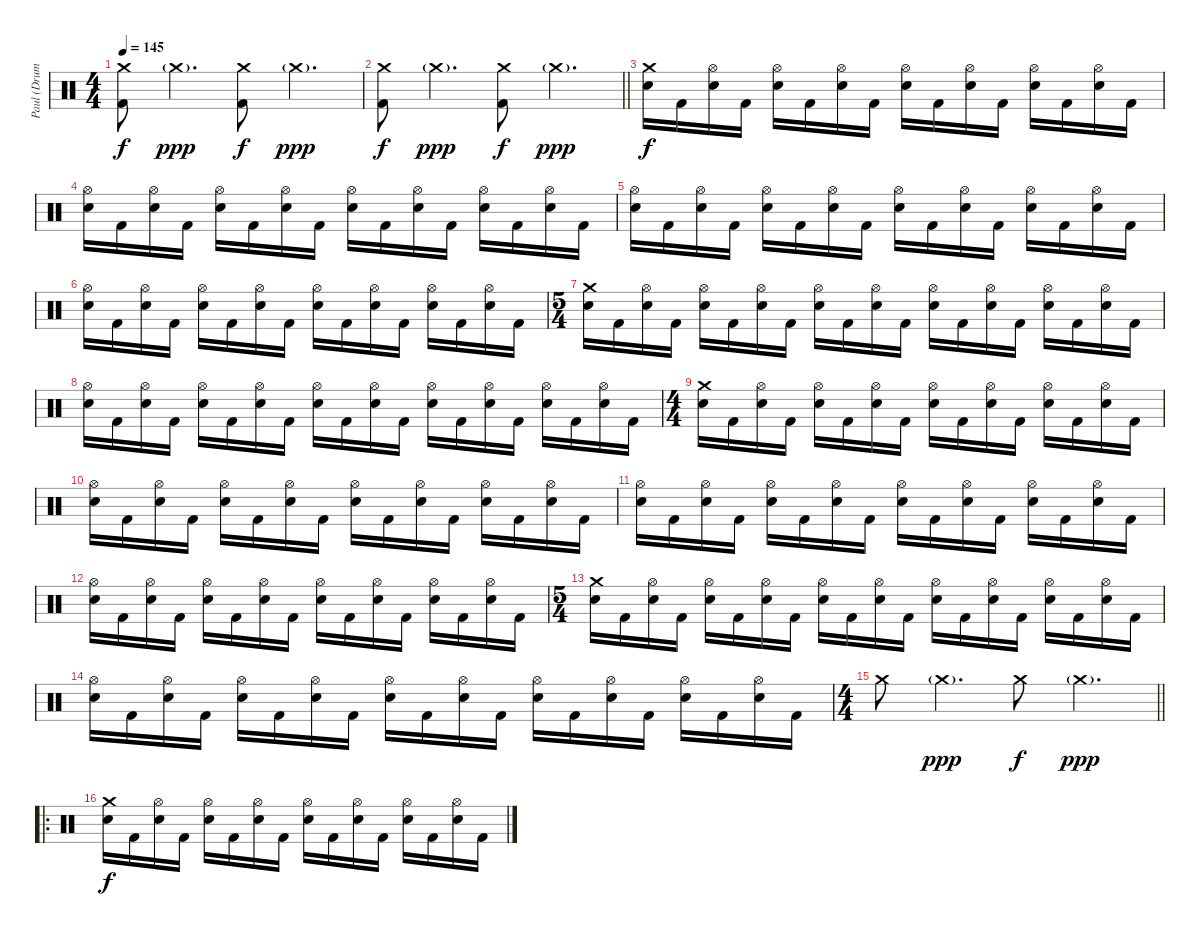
\track ("Paul (Drums)" "Paul (Drum") {instrument percussion}
\staff {score}
\articulation defaults
\ts (4 4)
\tempo 145
\clef neutral
\ks c
("Crash medium (hit)" "Kick (hit) 2").8{dy f} "Crash medium (hit)"{g}.4{d dy ppp} ("Crash medium (hit)" "Kick (hit) 2").8{dy f} "Crash medium (hit)"{g}.4{d dy ppp} |
\barLineRight lightlight
("Crash medium (hit)" "Kick (hit) 2").8{dy f} "Crash medium (hit)"{g}.4{d dy ppp} ("Crash medium (hit)" "Kick (hit) 2").8{dy f} "Crash medium (hit)"{g}.4{d dy ppp} |
\section ("" " ")
("Crash medium (hit)" "Electric Snare (hit)").16{dy f} "Kick (hit) 2".16 ("Hi-Hat (open)" "Electric Snare (hit)").16 "Kick (hit) 2".16 ("Hi-Hat (open)" "Electric Snare (hit)").16 "Kick (hit) 2".16 ("Hi-Hat (open)" "Electric Snare (hit)").16 "Kick (hit) 2".16 ("Hi-Hat (open)" "Electric Snare (hit)").16 "Kick (hit) 2".16 ("Hi-Hat (open)" "Electric Snare (hit)").16 "Kick (hit) 2".16 ("Hi-Hat (open)" "Electric Snare (hit)").16 "Kick (hit) 2".16 ("Hi-Hat (open)" "Electric Snare (hit)").16 "Kick (hit) 2".16 |
("Hi-Hat (open)" "Electric Snare (hit)").16 "Kick (hit) 2".16 ("Hi-Hat (open)" "Electric Snare (hit)").16 "Kick (hit) 2".16 ("Hi-Hat (open)" "Electric Snare (hit)").16 "Kick (hit) 2".16 ("Hi-Hat (open)" "Electric Snare (hit)").16 "Kick (hit) 2".16 ("Hi-Hat (open)" "Electric Snare (hit)").16 "Kick (hit) 2".16 ("Hi-Hat (open)" "Electric Snare (hit)").16 "Kick (hit) 2".16 ("Hi-Hat (open)" "Electric Snare (hit)").16 "Kick (hit) 2".16 ("Hi-Hat (open)" "Electric Snare (hit)").16 "Kick (hit) 2".16 |
("Hi-Hat (open)" "Electric Snare (hit)").16 "Kick (hit) 2".16 ("Hi-Hat (open)" "Electric Snare (hit)").16 "Kick (hit) 2".16 ("Hi-Hat (open)" "Electric Snare (hit)").16 "Kick (hit) 2".16 ("Hi-Hat (open)" "Electric Snare (hit)").16 "Kick (hit) 2".16 ("Hi-Hat (open)" "Electric Snare (hit)").16 "Kick (hit) 2".16 ("Hi-Hat (open)" "Electric Snare (hit)").16 "Kick (hit) 2".16 ("Hi-Hat (open)" "Electric Snare (hit)").16 "Kick (hit) 2".16 ("Hi-Hat (open)" "Electric Snare (hit)").16 "Kick (hit) 2".16 |
("Hi-Hat (open)" "Electric Snare (hit)").16 "Kick (hit) 2".16 ("Hi-Hat (open)" "Electric Snare (hit)").16 "Kick (hit) 2".16 ("Hi-Hat (open)" "Electric Snare (hit)").16 "Kick (hit) 2".16 ("Hi-Hat (open)" "Electric Snare (hit)").16 "Kick (hit) 2".16 ("Hi-Hat (open)" "Electric Snare (hit)").16 "Kick (hit) 2".16 ("Hi-Hat (open)" "Electric Snare (hit)").16 "Kick (hit) 2".16 ("Hi-Hat (open)" "Electric Snare (hit)").16 "Kick (hit) 2".16 ("Hi-Hat (open)" "Electric Snare (hit)").16 "Kick (hit) 2".16 |
\ts (5 4)
("Crash medium (hit)" "Electric Snare (hit)").16 "Kick (hit) 2".16 ("Hi-Hat (open)" "Electric Snare (hit)").16 "Kick (hit) 2".16 ("Hi-Hat (open)" "Electric Snare (hit)").16 "Kick (hit) 2".16 ("Hi-Hat (open)" "Electric Snare (hit)").16 "Kick (hit) 2".16 ("Hi-Hat (open)" "Electric Snare (hit)").16 "Kick (hit) 2".16 ("Hi-Hat (open)" "Electric Snare (hit)").16 "Kick (hit) 2".16 ("Hi-Hat (open)" "Electric Snare (hit)").16 "Kick (hit) 2".16 ("Hi-Hat (open)" "Electric Snare (hit)").16 "Kick (hit) 2".16 ("Hi-Hat (open)" "Electric Snare (hit)").16 "Kick (hit) 2".16 ("Hi-Hat (open)" "Electric Snare (hit)").16 "Kick (hit) 2".16 |
("Hi-Hat (open)" "Electric Snare (hit)").16 "Kick (hit) 2".16 ("Hi-Hat (open)" "Electric Snare (hit)").16 "Kick (hit) 2".16 ("Hi-Hat (open)" "Electric Snare (hit)").16 "Kick (hit) 2".16 ("Hi-Hat (open)" "Electric Snare (hit)").16 "Kick (hit) 2".16 ("Hi-Hat (open)" "Electric Snare (hit)").16 "Kick (hit) 2".16 ("Hi-Hat (open)" "Electric Snare (hit)").16 "Kick (hit) 2".16 ("Hi-Hat (open)" "Electric Snare (hit)").16 "Kick (hit) 2".16 ("Hi-Hat (open)" "Electric Snare (hit)").16 "Kick (hit) 2".16 ("Hi-Hat (open)" "Electric Snare (hit)").16 "Kick (hit) 2".16 ("Hi-Hat (open)" "Electric Snare (hit)").16 "Kick (hit) 2".16 |
\ts (4 4)
("Crash medium (hit)" "Electric Snare (hit)").16 "Kick (hit) 2".16 ("Hi-Hat (open)" "Electric Snare (hit)").16 "Kick (hit) 2".16 ("Hi-Hat (open)" "Electric Snare (hit)").16 "Kick (hit) 2".16 ("Hi-Hat (open)" "Electric Snare (hit)").16 "Kick (hit) 2".16 ("Hi-Hat (open)" "Electric Snare (hit)").16 "Kick (hit) 2".16 ("Hi-Hat (open)" "Electric Snare (hit)").16 "Kick (hit) 2".16 ("Hi-Hat (open)" "Electric Snare (hit)").16 "Kick (hit) 2".16 ("Hi-Hat (open)" "Electric Snare (hit)").16 "Kick (hit) 2".16 |
("Hi-Hat (open)" "Electric Snare (hit)").16 "Kick (hit) 2".16 ("Hi-Hat (open)" "Electric Snare (hit)").16 "Kick (hit) 2".16 ("Hi-Hat (open)" "Electric Snare (hit)").16 "Kick (hit) 2".16 ("Hi-Hat (open)" "Electric Snare (hit)").16 "Kick (hit) 2".16 ("Hi-Hat (open)" "Electric Snare (hit)").16 "Kick (hit) 2".16 ("Hi-Hat (open)" "Electric Snare (hit)").16 "Kick (hit) 2".16 ("Hi-Hat (open)" "Electric Snare (hit)").16 "Kick (hit) 2".16 ("Hi-Hat (open)" "Electric Snare (hit)").16 "Kick (hit) 2".16 |
("Hi-Hat (open)" "Electric Snare (hit)").16 "Kick (hit) 2".16 ("Hi-Hat (open)" "Electric Snare (hit)").16 "Kick (hit) 2".16 ("Hi-Hat (open)" "Electric Snare (hit)").16 "Kick (hit) 2".16 ("Hi-Hat (open)" "Electric Snare (hit)").16 "Kick (hit) 2".16 ("Hi-Hat (open)" "Electric Snare (hit)").16 "Kick (hit) 2".16 ("Hi-Hat (open)" "Electric Snare (hit)").16 "Kick (hit) 2".16 ("Hi-Hat (open)" "Electric Snare (hit)").16 "Kick (hit) 2".16 ("Hi-Hat (open)" "Electric Snare (hit)").16 "Kick (hit) 2".16 |
("Hi-Hat (open)" "Electric Snare (hit)").16 "Kick (hit) 2".16 ("Hi-Hat (open)" "Electric Snare (hit)").16 "Kick (hit) 2".16 ("Hi-Hat (open)" "Electric Snare (hit)").16 "Kick (hit) 2".16 ("Hi-Hat (open)" "Electric Snare (hit)").16 "Kick (hit) 2".16 ("Hi-Hat (open)" "Electric Snare (hit)").16 "Kick (hit) 2".16 ("Hi-Hat (open)" "Electric Snare (hit)").16 "Kick (hit) 2".16 ("Hi-Hat (open)" "Electric Snare (hit)").16 "Kick (hit) 2".16 ("Hi-Hat (open)" "Electric Snare (hit)").16 "Kick (hit) 2".16 |
\ts (5 4)
("Crash medium (hit)" "Electric Snare (hit)").16 "Kick (hit) 2".16 ("Hi-Hat (open)" "Electric Snare (hit)").16 "Kick (hit) 2".16 ("Hi-Hat (open)" "Electric Snare (hit)").16 "Kick (hit) 2".16 ("Hi-Hat (open)" "Electric Snare (hit)").16 "Kick (hit) 2".16 ("Hi-Hat (open)" "Electric Snare (hit)").16 "Kick (hit) 2".16 ("Hi-Hat (open)" "Electric Snare (hit)").16 "Kick (hit) 2".16 ("Hi-Hat (open)" "Electric Snare (hit)").16 "Kick (hit) 2".16 ("Hi-Hat (open)" "Electric Snare (hit)").16 "Kick (hit) 2".16 ("Hi-Hat (open)" "Electric Snare (hit)").16 "Kick (hit) 2".16 ("Hi-Hat (open)" "Electric Snare (hit)").16 "Kick (hit) 2".16 |
("Hi-Hat (open)" "Electric Snare (hit)").16 "Kick (hit) 2".16 ("Hi-Hat (open)" "Electric Snare (hit)").16 "Kick (hit) 2".16 ("Hi-Hat (open)" "Electric Snare (hit)").16 "Kick (hit) 2".16 ("Hi-Hat (open)" "Electric Snare (hit)").16 "Kick (hit) 2".16 ("Hi-Hat (open)" "Electric Snare (hit)").16 "Kick (hit) 2".16 ("Hi-Hat (open)" "Electric Snare (hit)").16 "Kick (hit) 2".16 ("Hi-Hat (open)" "Electric Snare (hit)").16 "Kick (hit) 2".16 ("Hi-Hat (open)" "Electric Snare (hit)").16 "Kick (hit) 2".16 ("Hi-Hat (open)" "Electric Snare (hit)").16 "Kick (hit) 2".16 ("Hi-Hat (open)" "Electric Snare (hit)").16 "Kick (hit) 2".16 |
\ts (4 4)
\barLineRight lightlight "Crash medium (hit)".8 "Crash medium (hit)"{g}.4{d dy ppp} "Crash medium (hit)".8{dy f} "Crash medium (hit)"{g}.4{d dy ppp}
|
\ro
("Crash medium (hit)" "Electric Snare (hit)").16{dy f} "Kick (hit) 2".16 ("Hi-Hat (open)" "Electric Snare (hit)").16 "Kick (hit) 2".16 ("Hi-Hat (open)" "Electric Snare (hit)").16 "Kick (hit) 2".16 ("Hi-Hat (open)" "Electric Snare (hit)").16 "Kick (hit) 2".16 ("Hi-Hat (open)" "Electric Snare (hit)").16 "Kick (hit) 2".16 ("Hi-Hat (open)" "Electric Snare (hit)").16 "Kick (hit) 2".16 ("Hi-Hat (open)" "Electric Snare (hit)").16 "Kick (hit) 2".16 ("Hi-Hat (open)" "Electric Snare (hit)").16 "Kick (hit) 2".16
